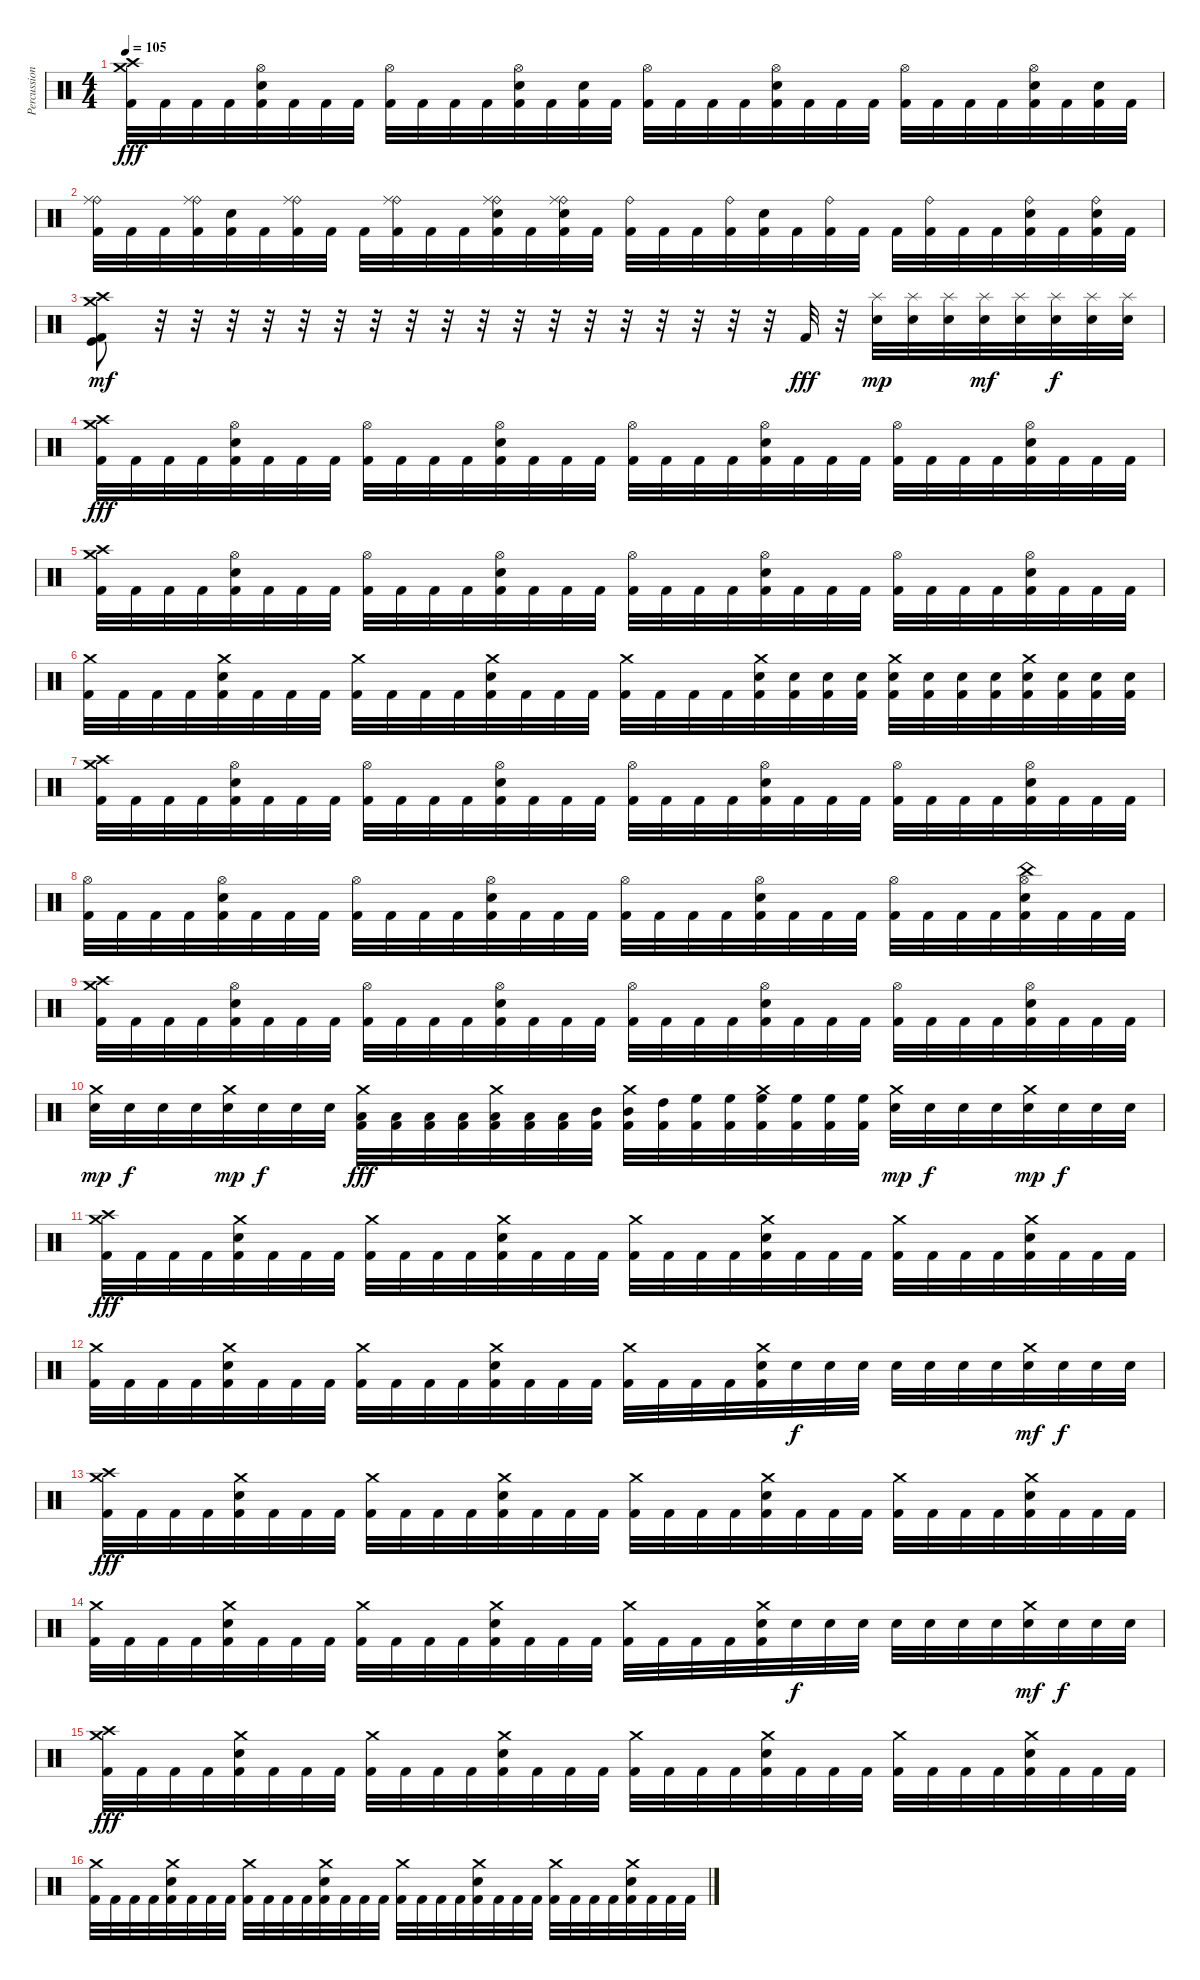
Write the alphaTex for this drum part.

\track ("Percussions" "Percussion") {instrument percussion}
\staff {score}
\articulation defaults
\ts (4 4)
\tempo 105
\clef neutral
\ks c
("Crash high (hit)" "Crash medium (hit)" "Kick (hit) 2").32{dy fff} "Kick (hit) 2".32 "Kick (hit) 2".32 "Kick (hit) 2".32 ("Hi-Hat (open)" "Electric Snare (hit)" "Kick (hit) 2").32 "Kick (hit) 2".32 "Kick (hit) 2".32 "Kick (hit) 2".32 ("Hi-Hat (open)" "Kick (hit) 2").32 "Kick (hit) 2".32 "Kick (hit) 2".32 "Kick (hit) 2".32 ("Hi-Hat (open)" "Electric Snare (hit)" "Kick (hit) 2").32 "Kick (hit) 2".32 ("Electric Snare (hit)" "Kick (hit) 2").32 "Kick (hit) 2".32 ("Hi-Hat (open)" "Kick (hit) 2").32 "Kick (hit) 2".32 "Kick (hit) 2".32 "Kick (hit) 2".32 ("Hi-Hat (open)" "Electric Snare (hit)" "Kick (hit) 2").32 "Kick (hit) 2".32 "Kick (hit) 2".32 "Kick (hit) 2".32 ("Hi-Hat (open)" "Kick (hit) 2").32 "Kick (hit) 2".32 "Kick (hit) 2".32 "Kick (hit) 2".32 ("Hi-Hat (open)" "Electric Snare (hit)" "Kick (hit) 2").32 "Kick (hit) 2".32 ("Electric Snare (hit)" "Kick (hit) 2").32 "Kick (hit) 2".32 |
("Ride (bell)" "Ride (middle)" "Kick (hit) 2").32 "Kick (hit) 2".32 "Kick (hit) 2".32 ("Ride (bell)" "Ride (middle)" "Kick (hit) 2").32 ("Electric Snare (hit)" "Kick (hit) 2").32 "Kick (hit) 2".32 ("Ride (bell)" "Ride (middle)" "Kick (hit) 2").32 "Kick (hit) 2".32 "Kick (hit) 2".32 ("Ride (bell)" "Ride (middle)" "Kick (hit) 2").32 "Kick (hit) 2".32 "Kick (hit) 2".32 ("Ride (bell)" "Ride (middle)" "Electric Snare (hit)" "Kick (hit) 2").32 "Kick (hit) 2".32 ("Ride (bell)" "Ride (middle)" "Electric Snare (hit)" "Kick (hit) 2").32 "Kick (hit) 2".32 ("Ride (bell)" "Kick (hit) 2").32 "Kick (hit) 2".32 "Kick (hit) 2".32 ("Ride (bell)" "Kick (hit) 2").32 ("Electric Snare (hit)" "Kick (hit) 2").32 "Kick (hit) 2".32 ("Ride (bell)" "Kick (hit) 2").32 "Kick (hit) 2".32 "Kick (hit) 2".32 ("Ride (bell)" "Kick (hit) 2").32 "Kick (hit) 2".32 "Kick (hit) 2".32 ("Ride (bell)" "Electric Snare (hit)" "Kick (hit) 2").32 "Kick (hit) 2".32 ("Ride (bell)" "Electric Snare (hit)" "Kick (hit) 2").32 "Kick (hit) 2".32 |
("Crash high (hit)" "Crash medium (hit)" "Kick (hit)" "Kick (hit) 2").8{dy mf} r.32 r.32 r.32 r.32 r.32 r.32 r.32 r.32 r.32 r.32 r.32 r.32 r.32 r.32 r.32 r.32 r.32 r.32 "Kick (hit) 2".32{dy fff} r.32 ("Splash (hit)" "Electric Snare (hit)").32{dy mp} ("Splash (hit)" "Electric Snare (hit)").32 ("Splash (hit)" "Electric Snare (hit)").32 ("Splash (hit)" "Electric Snare (hit)").32{dy mf} ("Splash (hit)" "Electric Snare (hit)").32 ("Splash (hit)" "Electric Snare (hit)").32{dy f} ("Splash (hit)" "Electric Snare (hit)").32 ("Splash (hit)" "Electric Snare (hit)").32 |
("Crash medium (hit)" "Crash high (hit)" "Kick (hit) 2").32{dy fff} "Kick (hit) 2".32 "Kick (hit) 2".32 "Kick (hit) 2".32 ("Hi-Hat (open)" "Electric Snare (hit)" "Kick (hit) 2").32 "Kick (hit) 2".32 "Kick (hit) 2".32 "Kick (hit) 2".32 ("Hi-Hat (open)" "Kick (hit) 2").32 "Kick (hit) 2".32 "Kick (hit) 2".32 "Kick (hit) 2".32 ("Hi-Hat (open)" "Electric Snare (hit)" "Kick (hit) 2").32 "Kick (hit) 2".32 "Kick (hit) 2".32 "Kick (hit) 2".32 ("Hi-Hat (open)" "Kick (hit) 2").32 "Kick (hit) 2".32 "Kick (hit) 2".32 "Kick (hit) 2".32 ("Hi-Hat (open)" "Electric Snare (hit)" "Kick (hit) 2").32 "Kick (hit) 2".32 "Kick (hit) 2".32 "Kick (hit) 2".32 ("Hi-Hat (open)" "Kick (hit) 2").32 "Kick (hit) 2".32 "Kick (hit) 2".32 "Kick (hit) 2".32 ("Hi-Hat (open)" "Electric Snare (hit)" "Kick (hit) 2").32 "Kick (hit) 2".32 "Kick (hit) 2".32 "Kick (hit) 2".32 |
("Crash high (hit)" "Crash medium (hit)" "Kick (hit) 2").32 "Kick (hit) 2".32 "Kick (hit) 2".32 "Kick (hit) 2".32 ("Hi-Hat (open)" "Electric Snare (hit)" "Kick (hit) 2").32 "Kick (hit) 2".32 "Kick (hit) 2".32 "Kick (hit) 2".32 ("Hi-Hat (open)" "Kick (hit) 2").32 "Kick (hit) 2".32 "Kick (hit) 2".32 "Kick (hit) 2".32 ("Hi-Hat (open)" "Electric Snare (hit)" "Kick (hit) 2").32 "Kick (hit) 2".32 "Kick (hit) 2".32 "Kick (hit) 2".32 ("Hi-Hat (open)" "Kick (hit) 2").32 "Kick (hit) 2".32 "Kick (hit) 2".32 "Kick (hit) 2".32 ("Hi-Hat (open)" "Electric Snare (hit)" "Kick (hit) 2").32 "Kick (hit) 2".32 "Kick (hit) 2".32 "Kick (hit) 2".32 ("Hi-Hat (open)" "Kick (hit) 2").32 "Kick (hit) 2".32 "Kick (hit) 2".32 "Kick (hit) 2".32 ("Hi-Hat (open)" "Electric Snare (hit)" "Kick (hit) 2").32 "Kick (hit) 2".32 "Kick (hit) 2".32 "Kick (hit) 2".32 |
("Crash medium (hit)" "Kick (hit) 2").32 "Kick (hit) 2".32 "Kick (hit) 2".32 "Kick (hit) 2".32 ("Crash medium (hit)" "Electric Snare (hit)" "Kick (hit) 2").32 "Kick (hit) 2".32 "Kick (hit) 2".32 "Kick (hit) 2".32 ("Crash medium (hit)" "Kick (hit) 2").32 "Kick (hit) 2".32 "Kick (hit) 2".32 "Kick (hit) 2".32 ("Crash medium (hit)" "Electric Snare (hit)" "Kick (hit) 2").32 "Kick (hit) 2".32 "Kick (hit) 2".32 "Kick (hit) 2".32 ("Crash medium (hit)" "Kick (hit) 2").32 "Kick (hit) 2".32 "Kick (hit) 2".32 "Kick (hit) 2".32 ("Crash medium (hit)" "Electric Snare (hit)" "Kick (hit) 2").32 ("Electric Snare (hit)" "Kick (hit) 2").32 ("Electric Snare (hit)" "Kick (hit) 2").32 ("Electric Snare (hit)" "Kick (hit) 2").32 ("Crash medium (hit)" "Electric Snare (hit)" "Kick (hit) 2").32 ("Electric Snare (hit)" "Kick (hit) 2").32 ("Electric Snare (hit)" "Kick (hit) 2").32 ("Electric Snare (hit)" "Kick (hit) 2").32 ("Crash medium (hit)" "Electric Snare (hit)" "Kick (hit) 2").32 ("Electric Snare (hit)" "Kick (hit) 2").32 ("Electric Snare (hit)" "Kick (hit) 2").32 ("Electric Snare (hit)" "Kick (hit) 2").32 |
("Crash high (hit)" "Crash medium (hit)" "Kick (hit) 2").32 "Kick (hit) 2".32 "Kick (hit) 2".32 "Kick (hit) 2".32 ("Hi-Hat (open)" "Electric Snare (hit)" "Kick (hit) 2").32 "Kick (hit) 2".32 "Kick (hit) 2".32 "Kick (hit) 2".32 ("Hi-Hat (open)" "Kick (hit) 2").32 "Kick (hit) 2".32 "Kick (hit) 2".32 "Kick (hit) 2".32 ("Hi-Hat (open)" "Electric Snare (hit)" "Kick (hit) 2").32 "Kick (hit) 2".32 "Kick (hit) 2".32 "Kick (hit) 2".32 ("Hi-Hat (open)" "Kick (hit) 2").32 "Kick (hit) 2".32 "Kick (hit) 2".32 "Kick (hit) 2".32 ("Hi-Hat (open)" "Electric Snare (hit)" "Kick (hit) 2").32 "Kick (hit) 2".32 "Kick (hit) 2".32 "Kick (hit) 2".32 ("Hi-Hat (open)" "Kick (hit) 2").32 "Kick (hit) 2".32 "Kick (hit) 2".32 "Kick (hit) 2".32 ("Hi-Hat (open)" "Electric Snare (hit)" "Kick (hit) 2").32 "Kick (hit) 2".32 "Kick (hit) 2".32 "Kick (hit) 2".32 |
("Hi-Hat (open)" "Kick (hit) 2").32 "Kick (hit) 2".32 "Kick (hit) 2".32 "Kick (hit) 2".32 ("Hi-Hat (open)" "Electric Snare (hit)" "Kick (hit) 2").32 "Kick (hit) 2".32 "Kick (hit) 2".32 "Kick (hit) 2".32 ("Hi-Hat (open)" "Kick (hit) 2").32 "Kick (hit) 2".32 "Kick (hit) 2".32 "Kick (hit) 2".32 ("Hi-Hat (open)" "Electric Snare (hit)" "Kick (hit) 2").32 "Kick (hit) 2".32 "Kick (hit) 2".32 "Kick (hit) 2".32 ("Hi-Hat (open)" "Kick (hit) 2").32 "Kick (hit) 2".32 "Kick (hit) 2".32 "Kick (hit) 2".32 ("Hi-Hat (open)" "Electric Snare (hit)" "Kick (hit) 2").32 "Kick (hit) 2".32 "Kick (hit) 2".32 "Kick (hit) 2".32 ("Hi-Hat (open)" "Kick (hit) 2").32 "Kick (hit) 2".32 "Kick (hit) 2".32 "Kick (hit) 2".32 ("China (hit)" "Hi-Hat (open)" "Electric Snare (hit)" "Kick (hit) 2").32 "Kick (hit) 2".32 "Kick (hit) 2".32 "Kick (hit) 2".32 |
("Crash high (hit)" "Crash medium (hit)" "Kick (hit) 2").32 "Kick (hit) 2".32 "Kick (hit) 2".32 "Kick (hit) 2".32 ("Hi-Hat (open)" "Electric Snare (hit)" "Kick (hit) 2").32 "Kick (hit) 2".32 "Kick (hit) 2".32 "Kick (hit) 2".32 ("Hi-Hat (open)" "Kick (hit) 2").32 "Kick (hit) 2".32 "Kick (hit) 2".32 "Kick (hit) 2".32 ("Hi-Hat (open)" "Electric Snare (hit)" "Kick (hit) 2").32 "Kick (hit) 2".32 "Kick (hit) 2".32 "Kick (hit) 2".32 ("Hi-Hat (open)" "Kick (hit) 2").32 "Kick (hit) 2".32 "Kick (hit) 2".32 "Kick (hit) 2".32 ("Hi-Hat (open)" "Electric Snare (hit)" "Kick (hit) 2").32 "Kick (hit) 2".32 "Kick (hit) 2".32 "Kick (hit) 2".32 ("Hi-Hat (open)" "Kick (hit) 2").32 "Kick (hit) 2".32 "Kick (hit) 2".32 "Kick (hit) 2".32 ("Hi-Hat (open)" "Electric Snare (hit)" "Kick (hit) 2").32 "Kick (hit) 2".32 "Kick (hit) 2".32 "Kick (hit) 2".32 |
("Crash medium (hit)" "Electric Snare (hit)").32{dy mp} "Electric Snare (hit)".32{dy f} "Electric Snare (hit)".32 "Electric Snare (hit)".32 ("Crash medium (hit)" "Electric Snare (hit)").32{dy mp} "Electric Snare (hit)".32{dy f} "Electric Snare (hit)".32 "Electric Snare (hit)".32 ("Crash medium (hit)" "Low Floor Tom (hit)" "Kick (hit) 2").32{dy fff} ("Low Floor Tom (hit)" "Kick (hit) 2").32 ("Low Floor Tom (hit)" "Kick (hit) 2").32 ("Low Floor Tom (hit)" "Kick (hit) 2").32 ("Crash medium (hit)" "Low Tom (hit)" "Kick (hit) 2").32 ("Low Tom (hit)" "Kick (hit) 2").32 ("Low Tom (hit)" "Kick (hit) 2").32 ("Mid Tom (hit)" "Kick (hit) 2").32 ("Crash medium (hit)" "Mid Tom (hit)" "Kick (hit) 2").32 ("High Tom (hit)" "Kick (hit) 2").32 ("High Floor Tom (hit)" "Kick (hit) 2").32 ("High Floor Tom (hit)" "Kick (hit) 2").32 ("Crash medium (hit)" "High Floor Tom (hit)" "Kick (hit) 2").32 ("High Floor Tom (hit)" "Kick (hit) 2").32 ("High Floor Tom (hit)" "Kick (hit) 2").32 ("High Floor Tom (hit)" "Kick (hit) 2").32 ("Crash medium (hit)" "Electric Snare (hit)").32{dy mp} "Electric Snare (hit)".32{dy f} "Electric Snare (hit)".32 "Electric Snare (hit)".32 ("Crash medium (hit)" "Electric Snare (hit)").32{dy mp} "Electric Snare (hit)".32{dy f} "Electric Snare (hit)".32 "Electric Snare (hit)".32 |
("Crash high (hit)" "Crash medium (hit)" "Kick (hit) 2").32{dy fff} "Kick (hit) 2".32 "Kick (hit) 2".32 "Kick (hit) 2".32 ("Crash medium (hit)" "Electric Snare (hit)" "Kick (hit) 2").32 "Kick (hit) 2".32 "Kick (hit) 2".32 "Kick (hit) 2".32 ("Crash medium (hit)" "Kick (hit) 2").32 "Kick (hit) 2".32 "Kick (hit) 2".32 "Kick (hit) 2".32 ("Crash medium (hit)" "Electric Snare (hit)" "Kick (hit) 2").32 "Kick (hit) 2".32 "Kick (hit) 2".32 "Kick (hit) 2".32 ("Crash medium (hit)" "Kick (hit) 2").32 "Kick (hit) 2".32 "Kick (hit) 2".32 "Kick (hit) 2".32 ("Crash medium (hit)" "Electric Snare (hit)" "Kick (hit) 2").32 "Kick (hit) 2".32 "Kick (hit) 2".32 "Kick (hit) 2".32 ("Crash medium (hit)" "Kick (hit) 2").32 "Kick (hit) 2".32 "Kick (hit) 2".32 "Kick (hit) 2".32 ("Crash medium (hit)" "Electric Snare (hit)" "Kick (hit) 2").32 "Kick (hit) 2".32 "Kick (hit) 2".32 "Kick (hit) 2".32 |
("Crash medium (hit)" "Kick (hit) 2").32 "Kick (hit) 2".32 "Kick (hit) 2".32 "Kick (hit) 2".32 ("Crash medium (hit)" "Electric Snare (hit)" "Kick (hit) 2").32 "Kick (hit) 2".32 "Kick (hit) 2".32 "Kick (hit) 2".32 ("Crash medium (hit)" "Kick (hit) 2").32 "Kick (hit) 2".32 "Kick (hit) 2".32 "Kick (hit) 2".32 ("Crash medium (hit)" "Electric Snare (hit)" "Kick (hit) 2").32 "Kick (hit) 2".32 "Kick (hit) 2".32 "Kick (hit) 2".32 ("Crash medium (hit)" "Kick (hit) 2").32 "Kick (hit) 2".32 "Kick (hit) 2".32 "Kick (hit) 2".32 ("Crash medium (hit)" "Electric Snare (hit)" "Kick (hit) 2").32 "Electric Snare (hit)".32{dy f} "Electric Snare (hit)".32 "Electric Snare (hit)".32 "Electric Snare (hit)".32 "Electric Snare (hit)".32 "Electric Snare (hit)".32 "Electric Snare (hit)".32 ("Crash medium (hit)" "Electric Snare (hit)").32{dy mf} "Electric Snare (hit)".32{dy f} "Electric Snare (hit)".32 "Electric Snare (hit)".32 |
("Crash high (hit)" "Crash medium (hit)" "Kick (hit) 2").32{dy fff} "Kick (hit) 2".32 "Kick (hit) 2".32 "Kick (hit) 2".32 ("Crash medium (hit)" "Electric Snare (hit)" "Kick (hit) 2").32 "Kick (hit) 2".32 "Kick (hit) 2".32 "Kick (hit) 2".32 ("Crash medium (hit)" "Kick (hit) 2").32 "Kick (hit) 2".32 "Kick (hit) 2".32 "Kick (hit) 2".32 ("Crash medium (hit)" "Electric Snare (hit)" "Kick (hit) 2").32 "Kick (hit) 2".32 "Kick (hit) 2".32 "Kick (hit) 2".32 ("Crash medium (hit)" "Kick (hit) 2").32 "Kick (hit) 2".32 "Kick (hit) 2".32 "Kick (hit) 2".32 ("Crash medium (hit)" "Electric Snare (hit)" "Kick (hit) 2").32 "Kick (hit) 2".32 "Kick (hit) 2".32 "Kick (hit) 2".32 ("Crash medium (hit)" "Kick (hit) 2").32 "Kick (hit) 2".32 "Kick (hit) 2".32 "Kick (hit) 2".32 ("Crash medium (hit)" "Electric Snare (hit)" "Kick (hit) 2").32 "Kick (hit) 2".32 "Kick (hit) 2".32 "Kick (hit) 2".32 |
("Crash medium (hit)" "Kick (hit) 2").32 "Kick (hit) 2".32 "Kick (hit) 2".32 "Kick (hit) 2".32 ("Crash medium (hit)" "Electric Snare (hit)" "Kick (hit) 2").32 "Kick (hit) 2".32 "Kick (hit) 2".32 "Kick (hit) 2".32 ("Crash medium (hit)" "Kick (hit) 2").32 "Kick (hit) 2".32 "Kick (hit) 2".32 "Kick (hit) 2".32 ("Crash medium (hit)" "Electric Snare (hit)" "Kick (hit) 2").32 "Kick (hit) 2".32 "Kick (hit) 2".32 "Kick (hit) 2".32 ("Crash medium (hit)" "Kick (hit) 2").32 "Kick (hit) 2".32 "Kick (hit) 2".32 "Kick (hit) 2".32 ("Crash medium (hit)" "Electric Snare (hit)" "Kick (hit) 2").32 "Electric Snare (hit)".32{dy f} "Electric Snare (hit)".32 "Electric Snare (hit)".32 "Electric Snare (hit)".32 "Electric Snare (hit)".32 "Electric Snare (hit)".32 "Electric Snare (hit)".32 ("Crash medium (hit)" "Electric Snare (hit)").32{dy mf} "Electric Snare (hit)".32{dy f} "Electric Snare (hit)".32 "Electric Snare (hit)".32 |
("Crash high (hit)" "Crash medium (hit)" "Kick (hit) 2").32{dy fff} "Kick (hit) 2".32 "Kick (hit) 2".32 "Kick (hit) 2".32 ("Crash medium (hit)" "Electric Snare (hit)" "Kick (hit) 2").32 "Kick (hit) 2".32 "Kick (hit) 2".32 "Kick (hit) 2".32 ("Crash medium (hit)" "Kick (hit) 2").32 "Kick (hit) 2".32 "Kick (hit) 2".32 "Kick (hit) 2".32 ("Crash medium (hit)" "Electric Snare (hit)" "Kick (hit) 2").32 "Kick (hit) 2".32 "Kick (hit) 2".32 "Kick (hit) 2".32 ("Crash medium (hit)" "Kick (hit) 2").32 "Kick (hit) 2".32 "Kick (hit) 2".32 "Kick (hit) 2".32 ("Crash medium (hit)" "Electric Snare (hit)" "Kick (hit) 2").32 "Kick (hit) 2".32 "Kick (hit) 2".32 "Kick (hit) 2".32 ("Crash medium (hit)" "Kick (hit) 2").32 "Kick (hit) 2".32 "Kick (hit) 2".32 "Kick (hit) 2".32 ("Crash medium (hit)" "Electric Snare (hit)" "Kick (hit) 2").32 "Kick (hit) 2".32 "Kick (hit) 2".32 "Kick (hit) 2".32 |
("Crash medium (hit)" "Kick (hit) 2").32 "Kick (hit) 2".32 "Kick (hit) 2".32 "Kick (hit) 2".32 ("Crash medium (hit)" "Electric Snare (hit)" "Kick (hit) 2").32 "Kick (hit) 2".32 "Kick (hit) 2".32 "Kick (hit) 2".32 ("Crash medium (hit)" "Kick (hit) 2").32 "Kick (hit) 2".32 "Kick (hit) 2".32 "Kick (hit) 2".32 ("Crash medium (hit)" "Electric Snare (hit)" "Kick (hit) 2").32 "Kick (hit) 2".32 "Kick (hit) 2".32 "Kick (hit) 2".32 ("Crash medium (hit)" "Kick (hit) 2").32 "Kick (hit) 2".32 "Kick (hit) 2".32 "Kick (hit) 2".32 ("Crash medium (hit)" "Electric Snare (hit)" "Kick (hit) 2").32 "Kick (hit) 2".32 "Kick (hit) 2".32 "Kick (hit) 2".32 ("Crash medium (hit)" "Kick (hit) 2").32 "Kick (hit) 2".32 "Kick (hit) 2".32 "Kick (hit) 2".32 ("Crash medium (hit)" "Electric Snare (hit)" "Kick (hit) 2").32 "Kick (hit) 2".32 "Kick (hit) 2".32 "Kick (hit) 2".32
